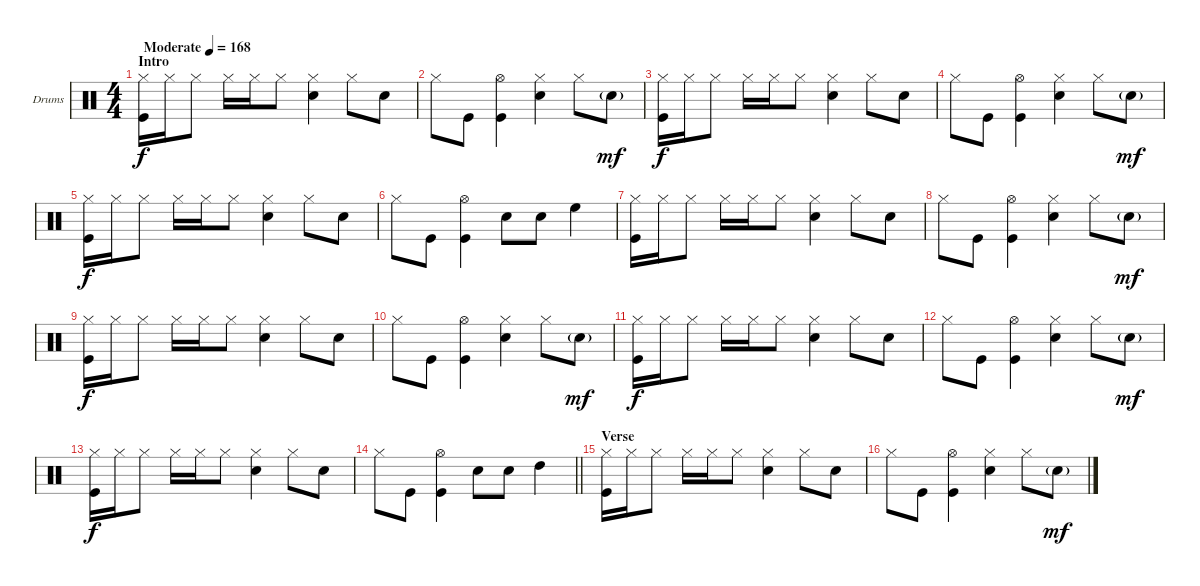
\bracketExtendMode groupsimilarinstruments
\firstSystemTrackNameOrientation horizontal
\otherSystemsTrackNameOrientation horizontal
\track ("Drumkit" "Drums") {solo instrument percussion}
\staff {score}
\articulation defaults
\ts (4 4)
\beaming (8 2 2 2 2)
\section ("" "Intro")
\tempo (168 "Moderate")
\clef neutral
\ks c
("Hi-Hat (closed)" "Kick (hit)").16{dy f} "Hi-Hat (closed)".16 "Hi-Hat (closed)".8 "Hi-Hat (closed)".16 "Hi-Hat (closed)".16 "Hi-Hat (closed)".8 ("Hi-Hat (closed)" "Snare (hit) 2").4 "Hi-Hat (closed)".8 "Snare (hit) 2".8 |
"Hi-Hat (closed)".8 "Kick (hit)".8 ("Hi-Hat (open)" "Kick (hit)").4 ("Hi-Hat (closed)" "Snare (hit) 2").4 "Hi-Hat (closed)".8 "Snare (hit) 2"{g}.8{dy mf} |
("Hi-Hat (closed)" "Kick (hit)").16{dy f} "Hi-Hat (closed)".16 "Hi-Hat (closed)".8 "Hi-Hat (closed)".16 "Hi-Hat (closed)".16 "Hi-Hat (closed)".8 ("Hi-Hat (closed)" "Snare (hit) 2").4 "Hi-Hat (closed)".8 "Snare (hit) 2".8 |
"Hi-Hat (closed)".8 "Kick (hit)".8 ("Hi-Hat (open)" "Kick (hit)").4 ("Hi-Hat (closed)" "Snare (hit) 2").4 "Hi-Hat (closed)".8 "Snare (hit) 2"{g}.8{dy mf} |
("Hi-Hat (closed)" "Kick (hit)").16{dy f} "Hi-Hat (closed)".16 "Hi-Hat (closed)".8 "Hi-Hat (closed)".16 "Hi-Hat (closed)".16 "Hi-Hat (closed)".8 ("Hi-Hat (closed)" "Snare (hit) 2").4 "Hi-Hat (closed)".8 "Snare (hit) 2".8 |
"Hi-Hat (closed)".8 "Kick (hit)".8 ("Hi-Hat (open)" "Kick (hit)").4 "Snare (hit) 2".8 "Snare (hit) 2".8 "High Floor Tom (hit)".4 |
("Hi-Hat (closed)" "Kick (hit)").16 "Hi-Hat (closed)".16 "Hi-Hat (closed)".8 "Hi-Hat (closed)".16 "Hi-Hat (closed)".16 "Hi-Hat (closed)".8 ("Hi-Hat (closed)" "Snare (hit) 2").4 "Hi-Hat (closed)".8 "Snare (hit) 2".8 |
"Hi-Hat (closed)".8 "Kick (hit)".8 ("Hi-Hat (open)" "Kick (hit)").4 ("Hi-Hat (closed)" "Snare (hit) 2").4 "Hi-Hat (closed)".8 "Snare (hit) 2"{g}.8{dy mf} |
("Hi-Hat (closed)" "Kick (hit)").16{dy f} "Hi-Hat (closed)".16 "Hi-Hat (closed)".8 "Hi-Hat (closed)".16 "Hi-Hat (closed)".16 "Hi-Hat (closed)".8 ("Hi-Hat (closed)" "Snare (hit) 2").4 "Hi-Hat (closed)".8 "Snare (hit) 2".8 |
"Hi-Hat (closed)".8 "Kick (hit)".8 ("Hi-Hat (open)" "Kick (hit)").4 ("Hi-Hat (closed)" "Snare (hit) 2").4 "Hi-Hat (closed)".8 "Snare (hit) 2"{g}.8{dy mf} |
("Hi-Hat (closed)" "Kick (hit)").16{dy f} "Hi-Hat (closed)".16 "Hi-Hat (closed)".8 "Hi-Hat (closed)".16 "Hi-Hat (closed)".16 "Hi-Hat (closed)".8 ("Hi-Hat (closed)" "Snare (hit) 2").4 "Hi-Hat (closed)".8 "Snare (hit) 2".8 |
"Hi-Hat (closed)".8 "Kick (hit)".8 ("Hi-Hat (open)" "Kick (hit)").4 ("Hi-Hat (closed)" "Snare (hit) 2").4 "Hi-Hat (closed)".8 "Snare (hit) 2"{g}.8{dy mf} |
("Hi-Hat (closed)" "Kick (hit)").16{dy f} "Hi-Hat (closed)".16 "Hi-Hat (closed)".8 "Hi-Hat (closed)".16 "Hi-Hat (closed)".16 "Hi-Hat (closed)".8 ("Hi-Hat (closed)" "Snare (hit) 2").4 "Hi-Hat (closed)".8 "Snare (hit) 2".8 |
\barLineRight lightlight "Hi-Hat (closed)".8 "Kick (hit)".8
("Hi-Hat (open)" "Kick (hit)").4 "Snare (hit) 2".8 "Snare (hit) 2".8 "High Tom (hit)".4 |
\section ("" "Verse")
("Hi-Hat (closed)" "Kick (hit)").16 "Hi-Hat (closed)".16 "Hi-Hat (closed)".8 "Hi-Hat (closed)".16 "Hi-Hat (closed)".16 "Hi-Hat (closed)".8 ("Hi-Hat (closed)" "Snare (hit) 2").4 "Hi-Hat (closed)".8 "Snare (hit) 2".8 |
"Hi-Hat (closed)".8 "Kick (hit)".8 ("Hi-Hat (open)" "Kick (hit)").4 ("Hi-Hat (closed)" "Snare (hit) 2").4 "Hi-Hat (closed)".8 "Snare (hit) 2"{g}.8{dy mf}
